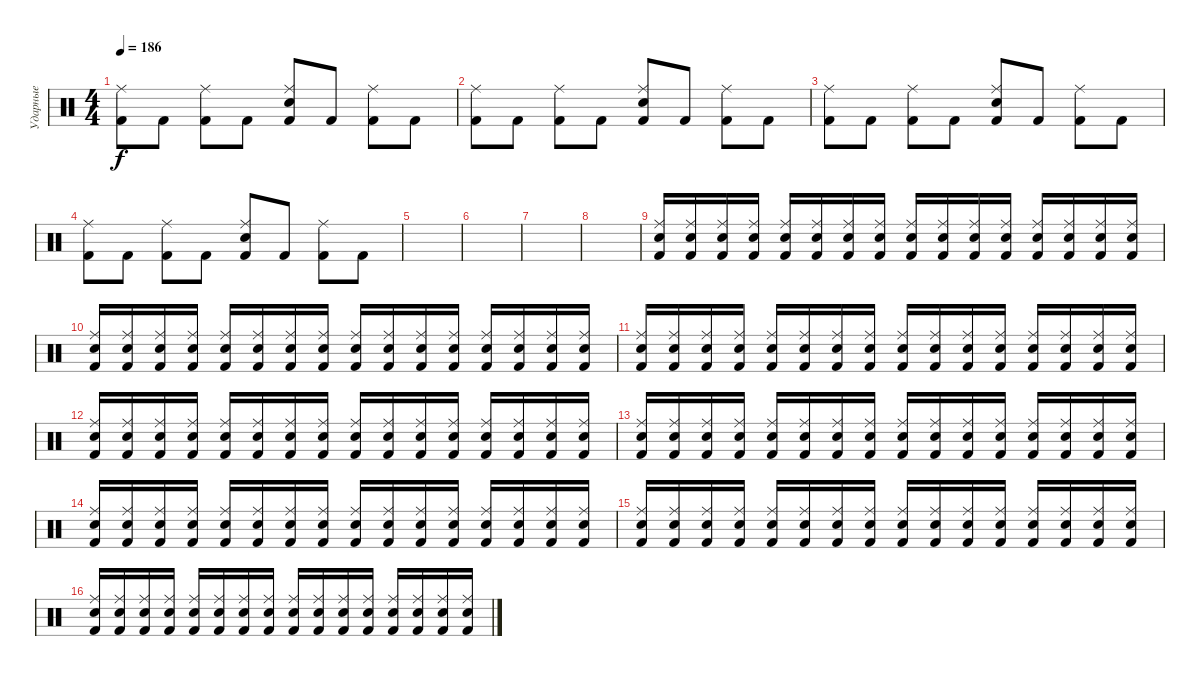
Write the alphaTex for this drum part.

\track ("Ударные" "Ударные") {instrument percussion}
\staff {score}
\articulation defaults
\ts (4 4)
\tempo 186
\clef neutral
\ks c
("Kick (hit) 2" "Ride (middle)").8{dy f} "Kick (hit) 2".8 ("Kick (hit) 2" "Ride (middle)").8 "Kick (hit) 2".8 ("Kick (hit) 2" "Snare (hit) 2" "Ride (middle)").8 "Kick (hit) 2".8 ("Kick (hit) 2" "Ride (middle)").8 "Kick (hit) 2".8 |
("Kick (hit) 2" "Ride (middle)").8 "Kick (hit) 2".8 ("Kick (hit) 2" "Ride (middle)").8 "Kick (hit) 2".8 ("Kick (hit) 2" "Snare (hit) 2" "Ride (middle)").8 "Kick (hit) 2".8 ("Kick (hit) 2" "Ride (middle)").8 "Kick (hit) 2".8 |
("Kick (hit) 2" "Ride (middle)").8 "Kick (hit) 2".8 ("Kick (hit) 2" "Ride (middle)").8 "Kick (hit) 2".8 ("Kick (hit) 2" "Snare (hit) 2" "Ride (middle)").8 "Kick (hit) 2".8 ("Kick (hit) 2" "Ride (middle)").8 "Kick (hit) 2".8 |
("Kick (hit) 2" "Ride (middle)").8 "Kick (hit) 2".8 ("Kick (hit) 2" "Ride (middle)").8 "Kick (hit) 2".8 ("Kick (hit) 2" "Snare (hit) 2" "Ride (middle)").8 "Kick (hit) 2".8 ("Kick (hit) 2" "Ride (middle)").8 "Kick (hit) 2".8 |
|
|
|
|
("Kick (hit) 2" "Ride (middle)" "Snare (hit) 2").16 ("Kick (hit) 2" "Ride (middle)" "Snare (hit) 2").16 ("Kick (hit) 2" "Ride (middle)" "Snare (hit) 2").16 ("Kick (hit) 2" "Ride (middle)" "Snare (hit) 2").16 ("Kick (hit) 2" "Ride (middle)" "Snare (hit) 2").16 ("Kick (hit) 2" "Ride (middle)" "Snare (hit) 2").16 ("Kick (hit) 2" "Ride (middle)" "Snare (hit) 2").16 ("Kick (hit) 2" "Ride (middle)" "Snare (hit) 2").16 ("Kick (hit) 2" "Ride (middle)" "Snare (hit) 2").16 ("Kick (hit) 2" "Ride (middle)" "Snare (hit) 2").16 ("Kick (hit) 2" "Ride (middle)" "Snare (hit) 2").16 ("Kick (hit) 2" "Ride (middle)" "Snare (hit) 2").16 ("Kick (hit) 2" "Ride (middle)" "Snare (hit) 2").16 ("Kick (hit) 2" "Ride (middle)" "Snare (hit) 2").16 ("Kick (hit) 2" "Ride (middle)" "Snare (hit) 2").16 ("Kick (hit) 2" "Ride (middle)" "Snare (hit) 2").16 |
("Kick (hit) 2" "Ride (middle)" "Snare (hit) 2").16 ("Kick (hit) 2" "Ride (middle)" "Snare (hit) 2").16 ("Kick (hit) 2" "Ride (middle)" "Snare (hit) 2").16 ("Kick (hit) 2" "Ride (middle)" "Snare (hit) 2").16 ("Kick (hit) 2" "Ride (middle)" "Snare (hit) 2").16 ("Kick (hit) 2" "Ride (middle)" "Snare (hit) 2").16 ("Kick (hit) 2" "Ride (middle)" "Snare (hit) 2").16 ("Kick (hit) 2" "Ride (middle)" "Snare (hit) 2").16 ("Kick (hit) 2" "Ride (middle)" "Snare (hit) 2").16 ("Kick (hit) 2" "Ride (middle)" "Snare (hit) 2").16 ("Kick (hit) 2" "Ride (middle)" "Snare (hit) 2").16 ("Kick (hit) 2" "Ride (middle)" "Snare (hit) 2").16 ("Kick (hit) 2" "Ride (middle)" "Snare (hit) 2").16 ("Kick (hit) 2" "Ride (middle)" "Snare (hit) 2").16 ("Kick (hit) 2" "Ride (middle)" "Snare (hit) 2").16 ("Kick (hit) 2" "Ride (middle)" "Snare (hit) 2").16 |
("Kick (hit) 2" "Ride (middle)" "Snare (hit) 2").16 ("Kick (hit) 2" "Ride (middle)" "Snare (hit) 2").16 ("Kick (hit) 2" "Ride (middle)" "Snare (hit) 2").16 ("Kick (hit) 2" "Ride (middle)" "Snare (hit) 2").16 ("Kick (hit) 2" "Ride (middle)" "Snare (hit) 2").16 ("Kick (hit) 2" "Ride (middle)" "Snare (hit) 2").16 ("Kick (hit) 2" "Ride (middle)" "Snare (hit) 2").16 ("Kick (hit) 2" "Ride (middle)" "Snare (hit) 2").16 ("Kick (hit) 2" "Ride (middle)" "Snare (hit) 2").16 ("Kick (hit) 2" "Ride (middle)" "Snare (hit) 2").16 ("Kick (hit) 2" "Ride (middle)" "Snare (hit) 2").16 ("Kick (hit) 2" "Ride (middle)" "Snare (hit) 2").16 ("Kick (hit) 2" "Ride (middle)" "Snare (hit) 2").16 ("Kick (hit) 2" "Ride (middle)" "Snare (hit) 2").16 ("Kick (hit) 2" "Ride (middle)" "Snare (hit) 2").16 ("Kick (hit) 2" "Ride (middle)" "Snare (hit) 2").16 |
("Kick (hit) 2" "Ride (middle)" "Snare (hit) 2").16 ("Kick (hit) 2" "Ride (middle)" "Snare (hit) 2").16 ("Kick (hit) 2" "Ride (middle)" "Snare (hit) 2").16 ("Kick (hit) 2" "Ride (middle)" "Snare (hit) 2").16 ("Kick (hit) 2" "Ride (middle)" "Snare (hit) 2").16 ("Kick (hit) 2" "Ride (middle)" "Snare (hit) 2").16 ("Kick (hit) 2" "Ride (middle)" "Snare (hit) 2").16 ("Kick (hit) 2" "Ride (middle)" "Snare (hit) 2").16 ("Kick (hit) 2" "Ride (middle)" "Snare (hit) 2").16 ("Kick (hit) 2" "Ride (middle)" "Snare (hit) 2").16 ("Kick (hit) 2" "Ride (middle)" "Snare (hit) 2").16 ("Kick (hit) 2" "Ride (middle)" "Snare (hit) 2").16 ("Kick (hit) 2" "Ride (middle)" "Snare (hit) 2").16 ("Kick (hit) 2" "Ride (middle)" "Snare (hit) 2").16 ("Kick (hit) 2" "Ride (middle)" "Snare (hit) 2").16 ("Kick (hit) 2" "Ride (middle)" "Snare (hit) 2").16 |
("Kick (hit) 2" "Ride (middle)" "Snare (hit) 2").16 ("Kick (hit) 2" "Ride (middle)" "Snare (hit) 2").16 ("Kick (hit) 2" "Ride (middle)" "Snare (hit) 2").16 ("Kick (hit) 2" "Ride (middle)" "Snare (hit) 2").16 ("Kick (hit) 2" "Ride (middle)" "Snare (hit) 2").16 ("Kick (hit) 2" "Ride (middle)" "Snare (hit) 2").16 ("Kick (hit) 2" "Ride (middle)" "Snare (hit) 2").16 ("Kick (hit) 2" "Ride (middle)" "Snare (hit) 2").16 ("Kick (hit) 2" "Ride (middle)" "Snare (hit) 2").16 ("Kick (hit) 2" "Ride (middle)" "Snare (hit) 2").16 ("Kick (hit) 2" "Ride (middle)" "Snare (hit) 2").16 ("Kick (hit) 2" "Ride (middle)" "Snare (hit) 2").16 ("Kick (hit) 2" "Ride (middle)" "Snare (hit) 2").16 ("Kick (hit) 2" "Ride (middle)" "Snare (hit) 2").16 ("Kick (hit) 2" "Ride (middle)" "Snare (hit) 2").16 ("Kick (hit) 2" "Ride (middle)" "Snare (hit) 2").16 |
("Kick (hit) 2" "Ride (middle)" "Snare (hit) 2").16 ("Kick (hit) 2" "Ride (middle)" "Snare (hit) 2").16 ("Kick (hit) 2" "Ride (middle)" "Snare (hit) 2").16 ("Kick (hit) 2" "Ride (middle)" "Snare (hit) 2").16 ("Kick (hit) 2" "Ride (middle)" "Snare (hit) 2").16 ("Kick (hit) 2" "Ride (middle)" "Snare (hit) 2").16 ("Kick (hit) 2" "Ride (middle)" "Snare (hit) 2").16 ("Kick (hit) 2" "Ride (middle)" "Snare (hit) 2").16 ("Kick (hit) 2" "Ride (middle)" "Snare (hit) 2").16 ("Kick (hit) 2" "Ride (middle)" "Snare (hit) 2").16 ("Kick (hit) 2" "Ride (middle)" "Snare (hit) 2").16 ("Kick (hit) 2" "Ride (middle)" "Snare (hit) 2").16 ("Kick (hit) 2" "Ride (middle)" "Snare (hit) 2").16 ("Kick (hit) 2" "Ride (middle)" "Snare (hit) 2").16 ("Kick (hit) 2" "Ride (middle)" "Snare (hit) 2").16 ("Kick (hit) 2" "Ride (middle)" "Snare (hit) 2").16 |
("Kick (hit) 2" "Ride (middle)" "Snare (hit) 2").16 ("Kick (hit) 2" "Ride (middle)" "Snare (hit) 2").16 ("Kick (hit) 2" "Ride (middle)" "Snare (hit) 2").16 ("Kick (hit) 2" "Ride (middle)" "Snare (hit) 2").16 ("Kick (hit) 2" "Ride (middle)" "Snare (hit) 2").16 ("Kick (hit) 2" "Ride (middle)" "Snare (hit) 2").16 ("Kick (hit) 2" "Ride (middle)" "Snare (hit) 2").16 ("Kick (hit) 2" "Ride (middle)" "Snare (hit) 2").16 ("Kick (hit) 2" "Ride (middle)" "Snare (hit) 2").16 ("Kick (hit) 2" "Ride (middle)" "Snare (hit) 2").16 ("Kick (hit) 2" "Ride (middle)" "Snare (hit) 2").16 ("Kick (hit) 2" "Ride (middle)" "Snare (hit) 2").16 ("Kick (hit) 2" "Ride (middle)" "Snare (hit) 2").16 ("Kick (hit) 2" "Ride (middle)" "Snare (hit) 2").16 ("Kick (hit) 2" "Ride (middle)" "Snare (hit) 2").16 ("Kick (hit) 2" "Ride (middle)" "Snare (hit) 2").16 |
("Kick (hit) 2" "Ride (middle)" "Snare (hit) 2").16 ("Kick (hit) 2" "Ride (middle)" "Snare (hit) 2").16 ("Kick (hit) 2" "Ride (middle)" "Snare (hit) 2").16 ("Kick (hit) 2" "Ride (middle)" "Snare (hit) 2").16 ("Kick (hit) 2" "Ride (middle)" "Snare (hit) 2").16 ("Kick (hit) 2" "Ride (middle)" "Snare (hit) 2").16 ("Kick (hit) 2" "Ride (middle)" "Snare (hit) 2").16 ("Kick (hit) 2" "Ride (middle)" "Snare (hit) 2").16 ("Kick (hit) 2" "Ride (middle)" "Snare (hit) 2").16 ("Kick (hit) 2" "Ride (middle)" "Snare (hit) 2").16 ("Kick (hit) 2" "Ride (middle)" "Snare (hit) 2").16 ("Kick (hit) 2" "Ride (middle)" "Snare (hit) 2").16 ("Kick (hit) 2" "Ride (middle)" "Snare (hit) 2").16 ("Kick (hit) 2" "Ride (middle)" "Snare (hit) 2").16 ("Kick (hit) 2" "Ride (middle)" "Snare (hit) 2").16 ("Kick (hit) 2" "Ride (middle)" "Snare (hit) 2").16
